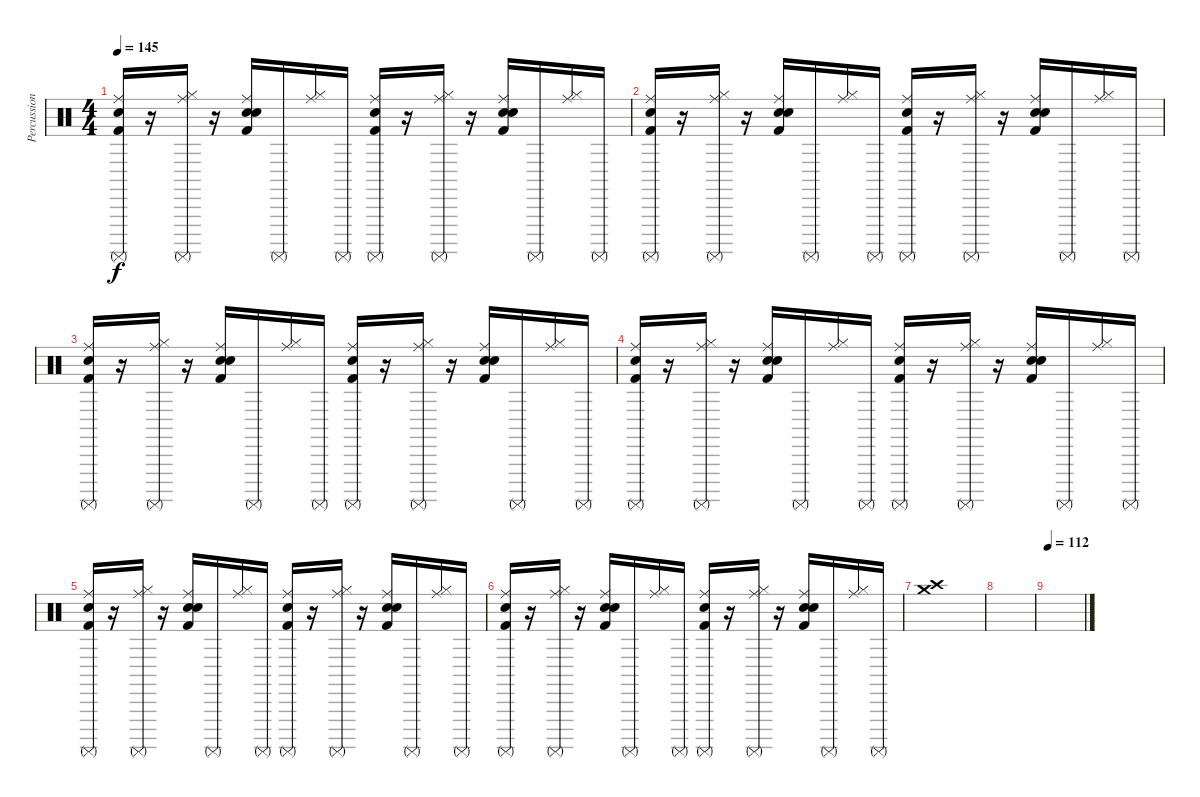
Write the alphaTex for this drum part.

\track ("Percussions" "Percussion") {instrument percussion}
\staff {score}
\articulation defaults
\ts (4 4)
\tempo 145
\clef neutral
\ks c
("Kick (hit) 2" "Snare (hit) 2" "Surdo (mute)" "Ride (middle)").16{dy f} r.16 ("Hi-Hat (closed)" "Surdo (mute)" "Ride (middle)").16 r.16 ("Kick (hit) 2" "Electric Snare (hit)" "Hand Clap (hit)" "Ride (middle)").16 "Surdo (mute)".16 ("Hi-Hat (closed)" "Ride (middle)").16 "Surdo (mute)".16 ("Kick (hit) 2" "Snare (hit) 2" "Surdo (mute)" "Ride (middle)").16 r.16 ("Hi-Hat (closed)" "Surdo (mute)" "Ride (middle)").16 r.16 ("Kick (hit) 2" "Electric Snare (hit)" "Hand Clap (hit)" "Ride (middle)").16 "Surdo (mute)".16 ("Hi-Hat (closed)" "Ride (middle)").16 "Surdo (mute)".16 |
("Kick (hit) 2" "Snare (hit) 2" "Surdo (mute)" "Ride (middle)").16 r.16 ("Hi-Hat (closed)" "Surdo (mute)" "Ride (middle)").16 r.16 ("Kick (hit) 2" "Electric Snare (hit)" "Hand Clap (hit)" "Ride (middle)").16 "Surdo (mute)".16 ("Hi-Hat (closed)" "Ride (middle)").16 "Surdo (mute)".16 ("Kick (hit) 2" "Snare (hit) 2" "Surdo (mute)" "Ride (middle)").16 r.16 ("Hi-Hat (closed)" "Surdo (mute)" "Ride (middle)").16 r.16 ("Kick (hit) 2" "Electric Snare (hit)" "Hand Clap (hit)" "Ride (middle)").16 "Surdo (mute)".16 ("Hi-Hat (closed)" "Ride (middle)").16 "Surdo (mute)".16 |
("Kick (hit) 2" "Snare (hit) 2" "Surdo (mute)" "Ride (middle)").16 r.16 ("Hi-Hat (closed)" "Surdo (mute)" "Ride (middle)").16 r.16 ("Kick (hit) 2" "Electric Snare (hit)" "Hand Clap (hit)" "Ride (middle)").16 "Surdo (mute)".16 ("Hi-Hat (closed)" "Ride (middle)").16 "Surdo (mute)".16 ("Kick (hit) 2" "Snare (hit) 2" "Surdo (mute)" "Ride (middle)").16 r.16 ("Hi-Hat (closed)" "Surdo (mute)" "Ride (middle)").16 r.16 ("Kick (hit) 2" "Electric Snare (hit)" "Hand Clap (hit)" "Ride (middle)").16 "Surdo (mute)".16 ("Hi-Hat (closed)" "Ride (middle)").16 "Surdo (mute)".16 |
("Kick (hit) 2" "Snare (hit) 2" "Surdo (mute)" "Ride (middle)").16 r.16 ("Hi-Hat (closed)" "Surdo (mute)" "Ride (middle)").16 r.16 ("Kick (hit) 2" "Electric Snare (hit)" "Hand Clap (hit)" "Ride (middle)").16 "Surdo (mute)".16 ("Hi-Hat (closed)" "Ride (middle)").16 "Surdo (mute)".16 ("Kick (hit) 2" "Snare (hit) 2" "Surdo (mute)" "Ride (middle)").16 r.16 ("Hi-Hat (closed)" "Surdo (mute)" "Ride (middle)").16 r.16 ("Kick (hit) 2" "Electric Snare (hit)" "Hand Clap (hit)" "Ride (middle)").16 "Surdo (mute)".16 ("Hi-Hat (closed)" "Ride (middle)").16 "Surdo (mute)".16 |
("Kick (hit) 2" "Snare (hit) 2" "Surdo (mute)" "Ride (middle)").16 r.16 ("Hi-Hat (closed)" "Surdo (mute)" "Ride (middle)").16 r.16 ("Kick (hit) 2" "Electric Snare (hit)" "Hand Clap (hit)" "Ride (middle)").16 "Surdo (mute)".16 ("Hi-Hat (closed)" "Ride (middle)").16 "Surdo (mute)".16 ("Kick (hit) 2" "Snare (hit) 2" "Surdo (mute)" "Ride (middle)").16 r.16 ("Hi-Hat (closed)" "Surdo (mute)" "Ride (middle)").16 r.16 ("Kick (hit) 2" "Electric Snare (hit)" "Hand Clap (hit)" "Ride (middle)").16 "Surdo (mute)".16 ("Hi-Hat (closed)" "Ride (middle)").16 "Surdo (mute)".16 |
("Kick (hit) 2" "Snare (hit) 2" "Surdo (mute)" "Ride (middle)").16 r.16 ("Hi-Hat (closed)" "Surdo (mute)" "Ride (middle)").16 r.16 ("Kick (hit) 2" "Electric Snare (hit)" "Hand Clap (hit)" "Ride (middle)").16 "Surdo (mute)".16 ("Hi-Hat (closed)" "Ride (middle)").16 "Surdo (mute)".16 ("Kick (hit) 2" "Snare (hit) 2" "Surdo (mute)" "Ride (middle)").16 r.16 ("Hi-Hat (closed)" "Surdo (mute)" "Ride (middle)").16 r.16 ("Kick (hit) 2" "Electric Snare (hit)" "Hand Clap (hit)" "Ride (middle)").16 "Surdo (mute)".16 ("Hi-Hat (closed)" "Ride (middle)").16 "Surdo (mute)".16 |
("Crash high (hit)" "Crash medium (hit)").1 |
|
\tempo 112
